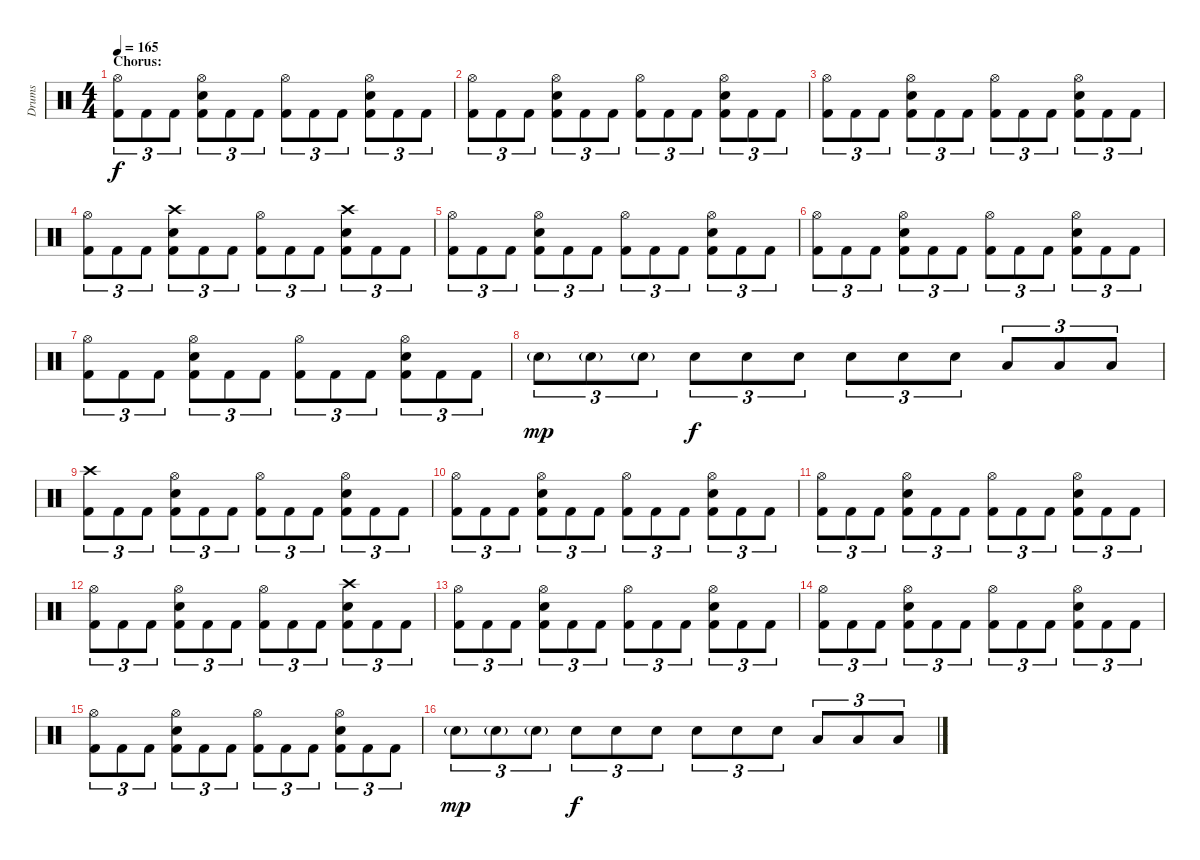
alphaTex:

\track ("Drums" "Drums") {instrument percussion}
\staff {score}
\articulation defaults
\ts (4 4)
\section ("" "Chorus:")
\tempo 165
\clef neutral
\ks c
("Hi-Hat (open)" "Kick (hit) 2").8{tu (3 2) dy f} "Kick (hit) 2".8{tu (3 2)} "Kick (hit) 2".8{tu (3 2)} ("Hi-Hat (open)" "Electric Snare (hit)" "Kick (hit) 2").8{tu (3 2)} "Kick (hit) 2".8{tu (3 2)} "Kick (hit) 2".8{tu (3 2)} ("Hi-Hat (open)" "Kick (hit) 2").8{tu (3 2)} "Kick (hit) 2".8{tu (3 2)} "Kick (hit) 2".8{tu (3 2)} ("Hi-Hat (open)" "Electric Snare (hit)" "Kick (hit) 2").8{tu (3 2)} "Kick (hit) 2".8{tu (3 2)} "Kick (hit) 2".8{tu (3 2)} |
("Hi-Hat (open)" "Kick (hit) 2").8{tu (3 2)} "Kick (hit) 2".8{tu (3 2)} "Kick (hit) 2".8{tu (3 2)} ("Hi-Hat (open)" "Electric Snare (hit)" "Kick (hit) 2").8{tu (3 2)} "Kick (hit) 2".8{tu (3 2)} "Kick (hit) 2".8{tu (3 2)} ("Hi-Hat (open)" "Kick (hit) 2").8{tu (3 2)} "Kick (hit) 2".8{tu (3 2)} "Kick (hit) 2".8{tu (3 2)} ("Hi-Hat (open)" "Electric Snare (hit)" "Kick (hit) 2").8{tu (3 2)} "Kick (hit) 2".8{tu (3 2)} "Kick (hit) 2".8{tu (3 2)} |
("Hi-Hat (open)" "Kick (hit) 2").8{tu (3 2)} "Kick (hit) 2".8{tu (3 2)} "Kick (hit) 2".8{tu (3 2)} ("Hi-Hat (open)" "Electric Snare (hit)" "Kick (hit) 2").8{tu (3 2)} "Kick (hit) 2".8{tu (3 2)} "Kick (hit) 2".8{tu (3 2)} ("Hi-Hat (open)" "Kick (hit) 2").8{tu (3 2)} "Kick (hit) 2".8{tu (3 2)} "Kick (hit) 2".8{tu (3 2)} ("Hi-Hat (open)" "Electric Snare (hit)" "Kick (hit) 2").8{tu (3 2)} "Kick (hit) 2".8{tu (3 2)} "Kick (hit) 2".8{tu (3 2)} |
("Hi-Hat (open)" "Kick (hit) 2").8{tu (3 2)} "Kick (hit) 2".8{tu (3 2)} "Kick (hit) 2".8{tu (3 2)} ("Crash high (hit)" "Electric Snare (hit)" "Kick (hit) 2").8{tu (3 2)} "Kick (hit) 2".8{tu (3 2)} "Kick (hit) 2".8{tu (3 2)} ("Hi-Hat (open)" "Kick (hit) 2").8{tu (3 2)} "Kick (hit) 2".8{tu (3 2)} "Kick (hit) 2".8{tu (3 2)} ("Crash high (hit)" "Electric Snare (hit)" "Kick (hit) 2").8{tu (3 2)} "Kick (hit) 2".8{tu (3 2)} "Kick (hit) 2".8{tu (3 2)} |
("Hi-Hat (open)" "Kick (hit) 2").8{tu (3 2)} "Kick (hit) 2".8{tu (3 2)} "Kick (hit) 2".8{tu (3 2)} ("Hi-Hat (open)" "Electric Snare (hit)" "Kick (hit) 2").8{tu (3 2)} "Kick (hit) 2".8{tu (3 2)} "Kick (hit) 2".8{tu (3 2)} ("Hi-Hat (open)" "Kick (hit) 2").8{tu (3 2)} "Kick (hit) 2".8{tu (3 2)} "Kick (hit) 2".8{tu (3 2)} ("Hi-Hat (open)" "Electric Snare (hit)" "Kick (hit) 2").8{tu (3 2)} "Kick (hit) 2".8{tu (3 2)} "Kick (hit) 2".8{tu (3 2)} |
("Hi-Hat (open)" "Kick (hit) 2").8{tu (3 2)} "Kick (hit) 2".8{tu (3 2)} "Kick (hit) 2".8{tu (3 2)} ("Hi-Hat (open)" "Electric Snare (hit)" "Kick (hit) 2").8{tu (3 2)} "Kick (hit) 2".8{tu (3 2)} "Kick (hit) 2".8{tu (3 2)} ("Hi-Hat (open)" "Kick (hit) 2").8{tu (3 2)} "Kick (hit) 2".8{tu (3 2)} "Kick (hit) 2".8{tu (3 2)} ("Hi-Hat (open)" "Electric Snare (hit)" "Kick (hit) 2").8{tu (3 2)} "Kick (hit) 2".8{tu (3 2)} "Kick (hit) 2".8{tu (3 2)} |
("Hi-Hat (open)" "Kick (hit) 2").8{tu (3 2)} "Kick (hit) 2".8{tu (3 2)} "Kick (hit) 2".8{tu (3 2)} ("Hi-Hat (open)" "Electric Snare (hit)" "Kick (hit) 2").8{tu (3 2)} "Kick (hit) 2".8{tu (3 2)} "Kick (hit) 2".8{tu (3 2)} ("Hi-Hat (open)" "Kick (hit) 2").8{tu (3 2)} "Kick (hit) 2".8{tu (3 2)} "Kick (hit) 2".8{tu (3 2)} ("Hi-Hat (open)" "Electric Snare (hit)" "Kick (hit) 2").8{tu (3 2)} "Kick (hit) 2".8{tu (3 2)} "Kick (hit) 2".8{tu (3 2)} |
"Electric Snare (hit)"{g}.8{tu (3 2) dy mp} "Electric Snare (hit)"{g}.8{tu (3 2)} "Electric Snare (hit)"{g}.8{tu (3 2)} "Electric Snare (hit)".8{tu (3 2) dy f} "Electric Snare (hit)".8{tu (3 2)} "Electric Snare (hit)".8{tu (3 2)} "Electric Snare (hit)".8{tu (3 2)} "Electric Snare (hit)".8{tu (3 2)} "Electric Snare (hit)".8{tu (3 2)} "Low Tom (hit)".8{tu (3 2)} "Low Tom (hit)".8{tu (3 2)} "Low Tom (hit)".8{tu (3 2)} |
("Crash high (hit)" "Kick (hit) 2").8{tu (3 2)} "Kick (hit) 2".8{tu (3 2)} "Kick (hit) 2".8{tu (3 2)} ("Hi-Hat (open)" "Electric Snare (hit)" "Kick (hit) 2").8{tu (3 2)} "Kick (hit) 2".8{tu (3 2)} "Kick (hit) 2".8{tu (3 2)} ("Hi-Hat (open)" "Kick (hit) 2").8{tu (3 2)} "Kick (hit) 2".8{tu (3 2)} "Kick (hit) 2".8{tu (3 2)} ("Hi-Hat (open)" "Electric Snare (hit)" "Kick (hit) 2").8{tu (3 2)} "Kick (hit) 2".8{tu (3 2)} "Kick (hit) 2".8{tu (3 2)} |
("Hi-Hat (open)" "Kick (hit) 2").8{tu (3 2)} "Kick (hit) 2".8{tu (3 2)} "Kick (hit) 2".8{tu (3 2)} ("Hi-Hat (open)" "Electric Snare (hit)" "Kick (hit) 2").8{tu (3 2)} "Kick (hit) 2".8{tu (3 2)} "Kick (hit) 2".8{tu (3 2)} ("Hi-Hat (open)" "Kick (hit) 2").8{tu (3 2)} "Kick (hit) 2".8{tu (3 2)} "Kick (hit) 2".8{tu (3 2)} ("Hi-Hat (open)" "Electric Snare (hit)" "Kick (hit) 2").8{tu (3 2)} "Kick (hit) 2".8{tu (3 2)} "Kick (hit) 2".8{tu (3 2)} |
("Hi-Hat (open)" "Kick (hit) 2").8{tu (3 2)} "Kick (hit) 2".8{tu (3 2)} "Kick (hit) 2".8{tu (3 2)} ("Hi-Hat (open)" "Electric Snare (hit)" "Kick (hit) 2").8{tu (3 2)} "Kick (hit) 2".8{tu (3 2)} "Kick (hit) 2".8{tu (3 2)} ("Hi-Hat (open)" "Kick (hit) 2").8{tu (3 2)} "Kick (hit) 2".8{tu (3 2)} "Kick (hit) 2".8{tu (3 2)} ("Hi-Hat (open)" "Electric Snare (hit)" "Kick (hit) 2").8{tu (3 2)} "Kick (hit) 2".8{tu (3 2)} "Kick (hit) 2".8{tu (3 2)} |
("Hi-Hat (open)" "Kick (hit) 2").8{tu (3 2)} "Kick (hit) 2".8{tu (3 2)} "Kick (hit) 2".8{tu (3 2)} ("Hi-Hat (open)" "Electric Snare (hit)" "Kick (hit) 2").8{tu (3 2)} "Kick (hit) 2".8{tu (3 2)} "Kick (hit) 2".8{tu (3 2)} ("Hi-Hat (open)" "Kick (hit) 2").8{tu (3 2)} "Kick (hit) 2".8{tu (3 2)} "Kick (hit) 2".8{tu (3 2)} ("Crash high (hit)" "Electric Snare (hit)" "Kick (hit) 2").8{tu (3 2)} "Kick (hit) 2".8{tu (3 2)} "Kick (hit) 2".8{tu (3 2)} |
("Hi-Hat (open)" "Kick (hit) 2").8{tu (3 2)} "Kick (hit) 2".8{tu (3 2)} "Kick (hit) 2".8{tu (3 2)} ("Hi-Hat (open)" "Electric Snare (hit)" "Kick (hit) 2").8{tu (3 2)} "Kick (hit) 2".8{tu (3 2)} "Kick (hit) 2".8{tu (3 2)} ("Hi-Hat (open)" "Kick (hit) 2").8{tu (3 2)} "Kick (hit) 2".8{tu (3 2)} "Kick (hit) 2".8{tu (3 2)} ("Hi-Hat (open)" "Electric Snare (hit)" "Kick (hit) 2").8{tu (3 2)} "Kick (hit) 2".8{tu (3 2)} "Kick (hit) 2".8{tu (3 2)} |
("Hi-Hat (open)" "Kick (hit) 2").8{tu (3 2)} "Kick (hit) 2".8{tu (3 2)} "Kick (hit) 2".8{tu (3 2)} ("Hi-Hat (open)" "Electric Snare (hit)" "Kick (hit) 2").8{tu (3 2)} "Kick (hit) 2".8{tu (3 2)} "Kick (hit) 2".8{tu (3 2)} ("Hi-Hat (open)" "Kick (hit) 2").8{tu (3 2)} "Kick (hit) 2".8{tu (3 2)} "Kick (hit) 2".8{tu (3 2)} ("Hi-Hat (open)" "Electric Snare (hit)" "Kick (hit) 2").8{tu (3 2)} "Kick (hit) 2".8{tu (3 2)} "Kick (hit) 2".8{tu (3 2)} |
("Hi-Hat (open)" "Kick (hit) 2").8{tu (3 2)} "Kick (hit) 2".8{tu (3 2)} "Kick (hit) 2".8{tu (3 2)} ("Hi-Hat (open)" "Electric Snare (hit)" "Kick (hit) 2").8{tu (3 2)} "Kick (hit) 2".8{tu (3 2)} "Kick (hit) 2".8{tu (3 2)} ("Hi-Hat (open)" "Kick (hit) 2").8{tu (3 2)} "Kick (hit) 2".8{tu (3 2)} "Kick (hit) 2".8{tu (3 2)} ("Hi-Hat (open)" "Electric Snare (hit)" "Kick (hit) 2").8{tu (3 2)} "Kick (hit) 2".8{tu (3 2)} "Kick (hit) 2".8{tu (3 2)} |
"Electric Snare (hit)"{g}.8{tu (3 2) dy mp} "Electric Snare (hit)"{g}.8{tu (3 2)} "Electric Snare (hit)"{g}.8{tu (3 2)} "Electric Snare (hit)".8{tu (3 2) dy f} "Electric Snare (hit)".8{tu (3 2)} "Electric Snare (hit)".8{tu (3 2)} "Electric Snare (hit)".8{tu (3 2)} "Electric Snare (hit)".8{tu (3 2)} "Electric Snare (hit)".8{tu (3 2)} "Low Tom (hit)".8{tu (3 2)} "Low Tom (hit)".8{tu (3 2)} "Low Tom (hit)".8{tu (3 2)}
